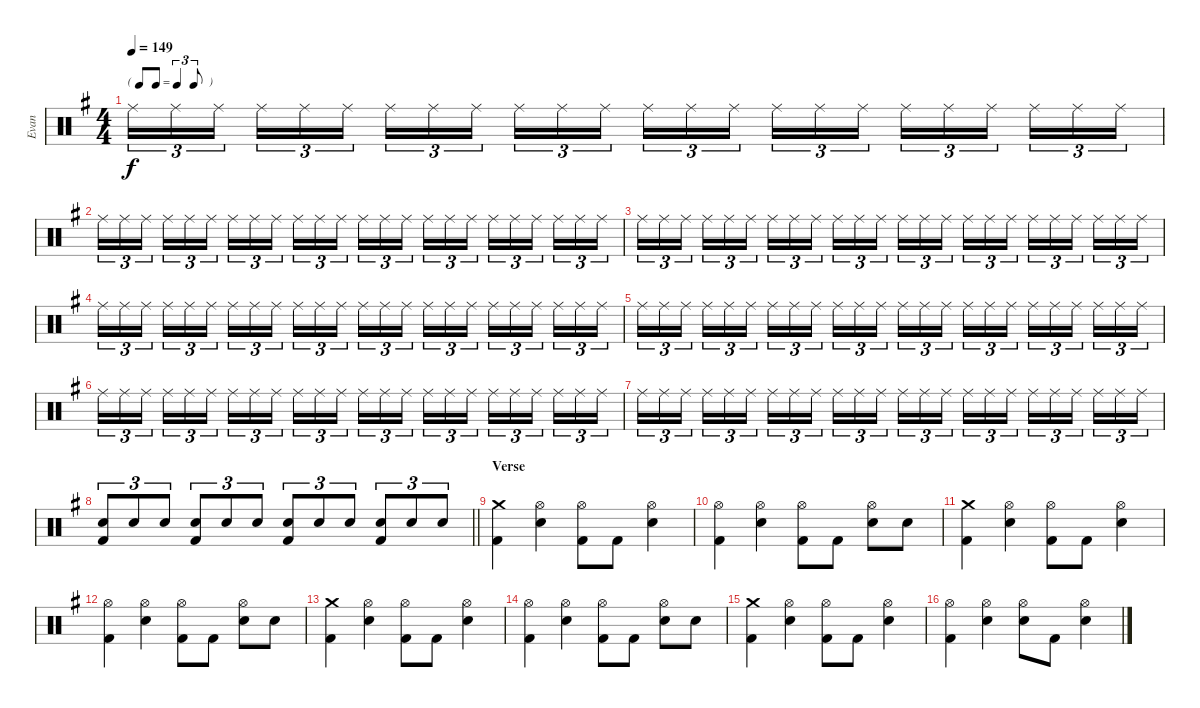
\track ("Evan" "Evan") {instrument percussion}
\staff {score}
\articulation defaults
\ts (4 4)
\tf triplet8th
\tempo 149
\clef neutral
\ks g "Ride (middle)".16{tu (3 2) dy f} "Ride (middle)".16{tu (3 2)} "Ride (middle)".16{tu (3 2) beam splitsecondary} "Ride (middle)".16{tu (3 2)} "Ride (middle)".16{tu (3 2)} "Ride (middle)".16{tu (3 2)} "Ride (middle)".16{tu (3 2)} "Ride (middle)".16{tu (3 2)} "Ride (middle)".16{tu (3 2) beam splitsecondary} "Ride (middle)".16{tu (3 2)} "Ride (middle)".16{tu (3 2)} "Ride (middle)".16{tu (3 2)} "Ride (middle)".16{tu (3 2)} "Ride (middle)".16{tu (3 2)} "Ride (middle)".16{tu (3 2) beam splitsecondary} "Ride (middle)".16{tu (3 2)} "Ride (middle)".16{tu (3 2)} "Ride (middle)".16{tu (3 2)} "Ride (middle)".16{tu (3 2)} "Ride (middle)".16{tu (3 2)} "Ride (middle)".16{tu (3 2) beam splitsecondary} "Ride (middle)".16{tu (3 2)} "Ride (middle)".16{tu (3 2)} "Ride (middle)".16{tu (3 2)}
|
"Ride (middle)".16{tu (3 2)} "Ride (middle)".16{tu (3 2)} "Ride (middle)".16{tu (3 2) beam splitsecondary} "Ride (middle)".16{tu (3 2)} "Ride (middle)".16{tu (3 2)} "Ride (middle)".16{tu (3 2)} "Ride (middle)".16{tu (3 2)} "Ride (middle)".16{tu (3 2)} "Ride (middle)".16{tu (3 2) beam splitsecondary} "Ride (middle)".16{tu (3 2)} "Ride (middle)".16{tu (3 2)} "Ride (middle)".16{tu (3 2)} "Ride (middle)".16{tu (3 2)} "Ride (middle)".16{tu (3 2)} "Ride (middle)".16{tu (3 2) beam splitsecondary} "Ride (middle)".16{tu (3 2)} "Ride (middle)".16{tu (3 2)} "Ride (middle)".16{tu (3 2)} "Ride (middle)".16{tu (3 2)} "Ride (middle)".16{tu (3 2)} "Ride (middle)".16{tu (3 2) beam splitsecondary} "Ride (middle)".16{tu (3 2)} "Ride (middle)".16{tu (3 2)} "Ride (middle)".16{tu (3 2)} |
"Ride (middle)".16{tu (3 2)} "Ride (middle)".16{tu (3 2)} "Ride (middle)".16{tu (3 2) beam splitsecondary} "Ride (middle)".16{tu (3 2)} "Ride (middle)".16{tu (3 2)} "Ride (middle)".16{tu (3 2)} "Ride (middle)".16{tu (3 2)} "Ride (middle)".16{tu (3 2)} "Ride (middle)".16{tu (3 2) beam splitsecondary} "Ride (middle)".16{tu (3 2)} "Ride (middle)".16{tu (3 2)} "Ride (middle)".16{tu (3 2)} "Ride (middle)".16{tu (3 2)} "Ride (middle)".16{tu (3 2)} "Ride (middle)".16{tu (3 2) beam splitsecondary} "Ride (middle)".16{tu (3 2)} "Ride (middle)".16{tu (3 2)} "Ride (middle)".16{tu (3 2)} "Ride (middle)".16{tu (3 2)} "Ride (middle)".16{tu (3 2)} "Ride (middle)".16{tu (3 2) beam splitsecondary} "Ride (middle)".16{tu (3 2)} "Ride (middle)".16{tu (3 2)} "Ride (middle)".16{tu (3 2)} |
"Ride (middle)".16{tu (3 2)} "Ride (middle)".16{tu (3 2)} "Ride (middle)".16{tu (3 2) beam splitsecondary} "Ride (middle)".16{tu (3 2)} "Ride (middle)".16{tu (3 2)} "Ride (middle)".16{tu (3 2)} "Ride (middle)".16{tu (3 2)} "Ride (middle)".16{tu (3 2)} "Ride (middle)".16{tu (3 2) beam splitsecondary} "Ride (middle)".16{tu (3 2)} "Ride (middle)".16{tu (3 2)} "Ride (middle)".16{tu (3 2)} "Ride (middle)".16{tu (3 2)} "Ride (middle)".16{tu (3 2)} "Ride (middle)".16{tu (3 2) beam splitsecondary} "Ride (middle)".16{tu (3 2)} "Ride (middle)".16{tu (3 2)} "Ride (middle)".16{tu (3 2)} "Ride (middle)".16{tu (3 2)} "Ride (middle)".16{tu (3 2)} "Ride (middle)".16{tu (3 2) beam splitsecondary} "Ride (middle)".16{tu (3 2)} "Ride (middle)".16{tu (3 2)} "Ride (middle)".16{tu (3 2)} |
"Ride (middle)".16{tu (3 2)} "Ride (middle)".16{tu (3 2)} "Ride (middle)".16{tu (3 2) beam splitsecondary} "Ride (middle)".16{tu (3 2)} "Ride (middle)".16{tu (3 2)} "Ride (middle)".16{tu (3 2)} "Ride (middle)".16{tu (3 2)} "Ride (middle)".16{tu (3 2)} "Ride (middle)".16{tu (3 2) beam splitsecondary} "Ride (middle)".16{tu (3 2)} "Ride (middle)".16{tu (3 2)} "Ride (middle)".16{tu (3 2)} "Ride (middle)".16{tu (3 2)} "Ride (middle)".16{tu (3 2)} "Ride (middle)".16{tu (3 2) beam splitsecondary} "Ride (middle)".16{tu (3 2)} "Ride (middle)".16{tu (3 2)} "Ride (middle)".16{tu (3 2)} "Ride (middle)".16{tu (3 2)} "Ride (middle)".16{tu (3 2)} "Ride (middle)".16{tu (3 2) beam splitsecondary} "Ride (middle)".16{tu (3 2)} "Ride (middle)".16{tu (3 2)} "Ride (middle)".16{tu (3 2)} |
"Ride (middle)".16{tu (3 2)} "Ride (middle)".16{tu (3 2)} "Ride (middle)".16{tu (3 2) beam splitsecondary} "Ride (middle)".16{tu (3 2)} "Ride (middle)".16{tu (3 2)} "Ride (middle)".16{tu (3 2)} "Ride (middle)".16{tu (3 2)} "Ride (middle)".16{tu (3 2)} "Ride (middle)".16{tu (3 2) beam splitsecondary} "Ride (middle)".16{tu (3 2)} "Ride (middle)".16{tu (3 2)} "Ride (middle)".16{tu (3 2)} "Ride (middle)".16{tu (3 2)} "Ride (middle)".16{tu (3 2)} "Ride (middle)".16{tu (3 2) beam splitsecondary} "Ride (middle)".16{tu (3 2)} "Ride (middle)".16{tu (3 2)} "Ride (middle)".16{tu (3 2)} "Ride (middle)".16{tu (3 2)} "Ride (middle)".16{tu (3 2)} "Ride (middle)".16{tu (3 2) beam splitsecondary} "Ride (middle)".16{tu (3 2)} "Ride (middle)".16{tu (3 2)} "Ride (middle)".16{tu (3 2)} |
"Ride (middle)".16{tu (3 2)} "Ride (middle)".16{tu (3 2)} "Ride (middle)".16{tu (3 2) beam splitsecondary} "Ride (middle)".16{tu (3 2)} "Ride (middle)".16{tu (3 2)} "Ride (middle)".16{tu (3 2)} "Ride (middle)".16{tu (3 2)} "Ride (middle)".16{tu (3 2)} "Ride (middle)".16{tu (3 2) beam splitsecondary} "Ride (middle)".16{tu (3 2)} "Ride (middle)".16{tu (3 2)} "Ride (middle)".16{tu (3 2)} "Ride (middle)".16{tu (3 2)} "Ride (middle)".16{tu (3 2)} "Ride (middle)".16{tu (3 2) beam splitsecondary} "Ride (middle)".16{tu (3 2)} "Ride (middle)".16{tu (3 2)} "Ride (middle)".16{tu (3 2)} "Ride (middle)".16{tu (3 2)} "Ride (middle)".16{tu (3 2)} "Ride (middle)".16{tu (3 2) beam splitsecondary} "Ride (middle)".16{tu (3 2)} "Ride (middle)".16{tu (3 2)} "Ride (middle)".16{tu (3 2)} |
\barLineRight lightlight
("Electric Snare (hit)" "Kick (hit) 2").8{tu (3 2)} "Electric Snare (hit)".8{tu (3 2)} "Electric Snare (hit)".8{tu (3 2)} ("Electric Snare (hit)" "Kick (hit) 2").8{tu (3 2)} "Electric Snare (hit)".8{tu (3 2)} "Electric Snare (hit)".8{tu (3 2)} ("Electric Snare (hit)" "Kick (hit) 2").8{tu (3 2)} "Electric Snare (hit)".8{tu (3 2)} "Electric Snare (hit)".8{tu (3 2)} ("Electric Snare (hit)" "Kick (hit) 2").8{tu (3 2)} "Electric Snare (hit)".8{tu (3 2)} "Electric Snare (hit)".8{tu (3 2)} |
\section ("" "Verse")
("Crash medium (hit)" "Kick (hit) 2").4 ("Hi-Hat (open)" "Electric Snare (hit)").4 ("Hi-Hat (open)" "Kick (hit) 2").8 "Kick (hit) 2".8 ("Hi-Hat (open)" "Electric Snare (hit)").4 |
("Hi-Hat (open)" "Kick (hit) 2").4 ("Hi-Hat (open)" "Electric Snare (hit)").4 ("Hi-Hat (open)" "Kick (hit) 2").8 "Kick (hit) 2".8 ("Hi-Hat (open)" "Electric Snare (hit)").8 "Electric Snare (hit)".8 |
("Crash medium (hit)" "Kick (hit) 2").4 ("Hi-Hat (open)" "Electric Snare (hit)").4 ("Hi-Hat (open)" "Kick (hit) 2").8 "Kick (hit) 2".8 ("Hi-Hat (open)" "Electric Snare (hit)").4 |
("Hi-Hat (open)" "Kick (hit) 2").4 ("Hi-Hat (open)" "Electric Snare (hit)").4 ("Hi-Hat (open)" "Kick (hit) 2").8 "Kick (hit) 2".8 ("Hi-Hat (open)" "Electric Snare (hit)").8 "Electric Snare (hit)".8 |
("Crash medium (hit)" "Kick (hit) 2").4 ("Hi-Hat (open)" "Electric Snare (hit)").4 ("Hi-Hat (open)" "Kick (hit) 2").8 "Kick (hit) 2".8 ("Hi-Hat (open)" "Electric Snare (hit)").4 |
("Hi-Hat (open)" "Kick (hit) 2").4 ("Hi-Hat (open)" "Electric Snare (hit)").4 ("Hi-Hat (open)" "Kick (hit) 2").8 "Kick (hit) 2".8 ("Hi-Hat (open)" "Electric Snare (hit)").8 "Electric Snare (hit)".8 |
("Crash medium (hit)" "Kick (hit) 2").4 ("Hi-Hat (open)" "Electric Snare (hit)").4 ("Hi-Hat (open)" "Kick (hit) 2").8 "Kick (hit) 2".8 ("Hi-Hat (open)" "Electric Snare (hit)").4 |
("Hi-Hat (open)" "Kick (hit) 2").4 ("Hi-Hat (open)" "Electric Snare (hit)").4 ("Hi-Hat (open)" "Electric Snare (hit)").8 "Kick (hit) 2".8 ("Hi-Hat (open)" "Electric Snare (hit)").4
